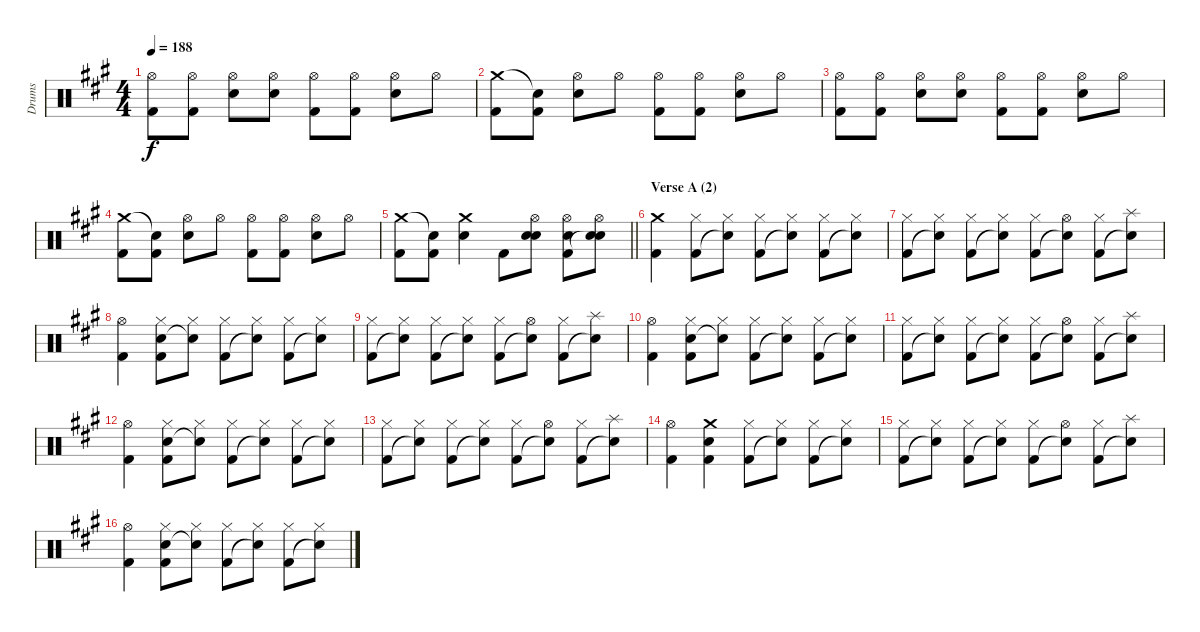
\track ("Drums" "Drums") {instrument percussion}
\staff {score}
\articulation defaults
\ts (4 4)
\tempo 188
\clef neutral
\ks a
("Hi-Hat (open)" "Kick (hit) 2").8{dy f} ("Hi-Hat (open)" "Kick (hit) 2").8 ("Hi-Hat (open)" "Electric Snare (hit)").8 ("Hi-Hat (open)" "Electric Snare (hit)").8 ("Hi-Hat (open)" "Kick (hit) 2").8 ("Hi-Hat (open)" "Kick (hit) 2").8 ("Hi-Hat (open)" "Electric Snare (hit)").8 "Hi-Hat (open)".8 |
("Crash medium (hit)" "Kick (hit) 2").8 ("Snare (hit)"{t} "Kick (hit) 2").8 ("Hi-Hat (open)" "Electric Snare (hit)").8 "Hi-Hat (open)".8 ("Hi-Hat (open)" "Kick (hit) 2").8 ("Hi-Hat (open)" "Kick (hit) 2").8 ("Hi-Hat (open)" "Electric Snare (hit)").8 "Hi-Hat (open)".8 |
("Hi-Hat (open)" "Kick (hit) 2").8 ("Hi-Hat (open)" "Kick (hit) 2").8 ("Hi-Hat (open)" "Electric Snare (hit)").8 ("Hi-Hat (open)" "Electric Snare (hit)").8 ("Hi-Hat (open)" "Kick (hit) 2").8 ("Hi-Hat (open)" "Kick (hit) 2").8 ("Hi-Hat (open)" "Electric Snare (hit)").8 "Hi-Hat (open)".8 |
("Crash medium (hit)" "Kick (hit) 2").8 ("Snare (hit)"{t} "Kick (hit) 2").8 ("Hi-Hat (open)" "Electric Snare (hit)").8 "Hi-Hat (open)".8 ("Hi-Hat (open)" "Kick (hit) 2").8 ("Hi-Hat (open)" "Kick (hit) 2").8 ("Hi-Hat (open)" "Electric Snare (hit)").8 "Hi-Hat (open)".8 |
\barLineRight lightlight
("Crash medium (hit)" "Kick (hit) 2").8 ("Snare (hit)"{t} "Kick (hit) 2").8 ("Crash medium (hit)" "Electric Snare (hit)").4 "Kick (hit) 2".8 ("Hi-Hat (open)" "Electric Snare (hit)" "Snare (hit)").8 ("Hi-Hat (open)" "Electric Snare (hit)" "Kick (hit) 2").8 ("Hi-Hat (open)" "Electric Snare (hit)" "Snare (hit)"{t}).8 |
\section ("" "Verse A (2)")
("Crash medium (hit)" "Kick (hit) 2").4 ("Hi-Hat (closed)" "Kick (hit) 2").8 ("Hi-Hat (closed)" "Snare (hit)"{t}).8 ("Hi-Hat (closed)" "Kick (hit) 2").8 ("Hi-Hat (closed)" "Snare (hit)"{t}).8 ("Hi-Hat (closed)" "Kick (hit) 2").8 ("Hi-Hat (closed)" "Snare (hit)"{t}).8 |
("Hi-Hat (closed)" "Kick (hit) 2").8 ("Hi-Hat (closed)" "Snare (hit)"{t}).8 ("Hi-Hat (closed)" "Kick (hit) 2").8 ("Hi-Hat (closed)" "Snare (hit)"{t}).8 ("Hi-Hat (closed)" "Kick (hit) 2").8 ("Hi-Hat (open)" "Snare (hit)"{t}).8 ("Hi-Hat (closed)" "Kick (hit) 2").8 ("Splash (hit)" "Snare (hit)"{t}).8 |
("Hi-Hat (open)" "Kick (hit) 2").4 ("Hi-Hat (closed)" "Electric Snare (hit)" "Kick (hit) 2").8 ("Hi-Hat (closed)" "Snare (hit)"{t}).8 ("Hi-Hat (closed)" "Kick (hit) 2").8 ("Hi-Hat (closed)" "Snare (hit)"{t}).8 ("Hi-Hat (closed)" "Kick (hit) 2").8 ("Hi-Hat (closed)" "Snare (hit)"{t}).8 |
("Hi-Hat (closed)" "Kick (hit) 2").8 ("Hi-Hat (closed)" "Snare (hit)"{t}).8 ("Hi-Hat (closed)" "Kick (hit) 2").8 ("Hi-Hat (closed)" "Snare (hit)"{t}).8 ("Hi-Hat (closed)" "Kick (hit) 2").8 ("Hi-Hat (open)" "Snare (hit)"{t}).8 ("Hi-Hat (closed)" "Kick (hit) 2").8 ("Splash (hit)" "Snare (hit)"{t}).8 |
("Hi-Hat (open)" "Kick (hit) 2").4 ("Hi-Hat (closed)" "Electric Snare (hit)" "Kick (hit) 2").8 ("Hi-Hat (closed)" "Snare (hit)"{t}).8 ("Hi-Hat (closed)" "Kick (hit) 2").8 ("Hi-Hat (closed)" "Snare (hit)"{t}).8 ("Hi-Hat (closed)" "Kick (hit) 2").8 ("Hi-Hat (closed)" "Snare (hit)"{t}).8 |
("Hi-Hat (closed)" "Kick (hit) 2").8 ("Hi-Hat (closed)" "Snare (hit)"{t}).8 ("Hi-Hat (closed)" "Kick (hit) 2").8 ("Hi-Hat (closed)" "Snare (hit)"{t}).8 ("Hi-Hat (closed)" "Kick (hit) 2").8 ("Hi-Hat (open)" "Snare (hit)"{t}).8 ("Hi-Hat (closed)" "Kick (hit) 2").8 ("Splash (hit)" "Snare (hit)"{t}).8 |
("Hi-Hat (open)" "Kick (hit) 2").4 ("Hi-Hat (closed)" "Electric Snare (hit)" "Kick (hit) 2").8 ("Hi-Hat (closed)" "Snare (hit)"{t}).8 ("Hi-Hat (closed)" "Kick (hit) 2").8 ("Hi-Hat (closed)" "Snare (hit)"{t}).8 ("Hi-Hat (closed)" "Kick (hit) 2").8 ("Hi-Hat (closed)" "Snare (hit)"{t}).8 |
("Hi-Hat (closed)" "Kick (hit) 2").8 ("Hi-Hat (closed)" "Snare (hit)"{t}).8 ("Hi-Hat (closed)" "Kick (hit) 2").8 ("Hi-Hat (closed)" "Snare (hit)"{t}).8 ("Hi-Hat (closed)" "Kick (hit) 2").8 ("Hi-Hat (open)" "Snare (hit)"{t}).8 ("Hi-Hat (closed)" "Kick (hit) 2").8 ("Splash (hit)" "Snare (hit)"{t}).8 |
("Hi-Hat (open)" "Kick (hit) 2").4 ("Crash medium (hit)" "Electric Snare (hit)" "Kick (hit) 2").4 ("Hi-Hat (closed)" "Kick (hit) 2").8 ("Hi-Hat (closed)" "Snare (hit)"{t}).8 ("Hi-Hat (closed)" "Kick (hit) 2").8 ("Hi-Hat (closed)" "Snare (hit)"{t}).8 |
("Hi-Hat (closed)" "Kick (hit) 2").8 ("Hi-Hat (closed)" "Snare (hit)"{t}).8 ("Hi-Hat (closed)" "Kick (hit) 2").8 ("Hi-Hat (closed)" "Snare (hit)"{t}).8 ("Hi-Hat (closed)" "Kick (hit) 2").8 ("Hi-Hat (open)" "Snare (hit)"{t}).8 ("Hi-Hat (closed)" "Kick (hit) 2").8 ("Splash (hit)" "Snare (hit)"{t}).8 |
("Hi-Hat (open)" "Kick (hit) 2").4 ("Hi-Hat (closed)" "Electric Snare (hit)" "Kick (hit) 2").8 ("Hi-Hat (closed)" "Snare (hit)"{t}).8 ("Hi-Hat (closed)" "Kick (hit) 2").8 ("Hi-Hat (closed)" "Snare (hit)"{t}).8 ("Hi-Hat (closed)" "Kick (hit) 2").8 ("Hi-Hat (closed)" "Snare (hit)"{t}).8
